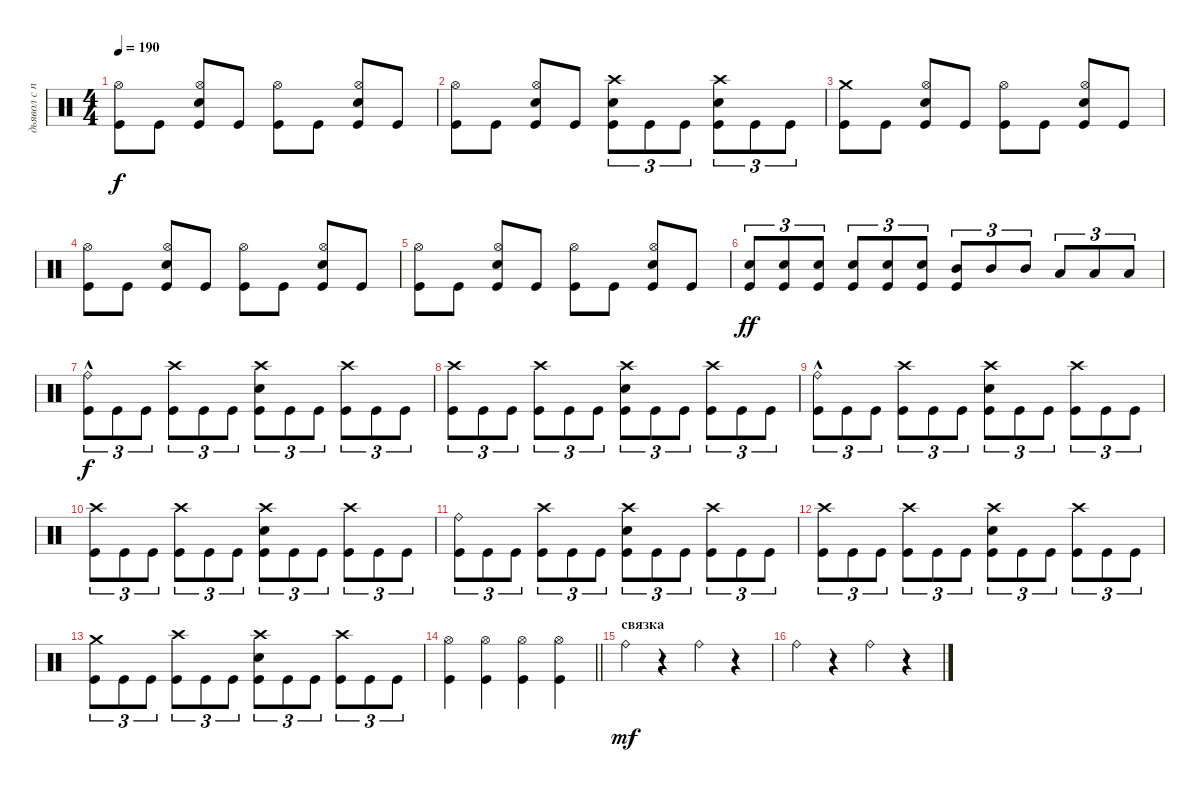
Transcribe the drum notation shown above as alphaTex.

\track ("дьявол с палками" "дьявол с п") {instrument percussion}
\staff {score}
\articulation defaults
\ts (4 4)
\tempo 190
\clef neutral
\ks c
("Kick (hit)" "Hi-Hat (open)").8{dy f} "Kick (hit)".8 ("Kick (hit)" "Snare (hit) 2" "Hi-Hat (open)").8 "Kick (hit)".8 ("Kick (hit)" "Hi-Hat (open)").8 "Kick (hit)".8 ("Kick (hit)" "Snare (hit) 2" "Hi-Hat (open)").8 "Kick (hit)".8 |
("Kick (hit)" "Hi-Hat (open)").8 "Kick (hit)".8 ("Kick (hit)" "Snare (hit) 2" "Hi-Hat (open)").8 "Kick (hit)".8 ("Kick (hit)" "Snare (hit) 2" "Crash high (hit)").8{tu (3 2)} "Kick (hit)".8{tu (3 2)} "Kick (hit)".8{tu (3 2)} ("Kick (hit)" "Snare (hit) 2" "Crash high (hit)").8{tu (3 2)} "Kick (hit)".8{tu (3 2)} "Kick (hit)".8{tu (3 2)} |
("Kick (hit)" "Crash medium (hit)").8 "Kick (hit)".8 ("Kick (hit)" "Snare (hit) 2" "Hi-Hat (open)").8 "Kick (hit)".8 ("Kick (hit)" "Hi-Hat (open)").8 "Kick (hit)".8 ("Kick (hit)" "Snare (hit) 2" "Hi-Hat (open)").8 "Kick (hit)".8 |
("Kick (hit)" "Hi-Hat (open)").8 "Kick (hit)".8 ("Kick (hit)" "Snare (hit) 2" "Hi-Hat (open)").8 "Kick (hit)".8 ("Kick (hit)" "Hi-Hat (open)").8 "Kick (hit)".8 ("Kick (hit)" "Snare (hit) 2" "Hi-Hat (open)").8 "Kick (hit)".8 |
("Kick (hit)" "Hi-Hat (open)").8 "Kick (hit)".8 ("Kick (hit)" "Snare (hit) 2" "Hi-Hat (open)").8 "Kick (hit)".8 ("Kick (hit)" "Hi-Hat (open)").8 "Kick (hit)".8 ("Kick (hit)" "Snare (hit) 2" "Hi-Hat (open)").8 "Kick (hit)".8 |
("Kick (hit)" "Snare (hit) 2").8{tu (3 2) dy ff} ("Kick (hit)" "Snare (hit) 2").8{tu (3 2)} ("Kick (hit)" "Snare (hit) 2").8{tu (3 2)} ("Kick (hit)" "Snare (hit) 2").8{tu (3 2)} ("Kick (hit)" "Snare (hit) 2").8{tu (3 2)} ("Kick (hit)" "Snare (hit) 2").8{tu (3 2)} ("Kick (hit)" "Mid Tom (hit)").8{tu (3 2)} "Mid Tom (hit)".8{tu (3 2)} "Mid Tom (hit)".8{tu (3 2)} "Low Tom (hit)".8{tu (3 2)} "Low Tom (hit)".8{tu (3 2)} "Low Tom (hit)".8{tu (3 2)} |
("Kick (hit)" "Ride (bell)"{hac}).8{tu (3 2) dy f} "Kick (hit)".8{tu (3 2)} "Kick (hit)".8{tu (3 2)} ("Kick (hit)" "Crash high (hit)").8{tu (3 2)} "Kick (hit)".8{tu (3 2)} "Kick (hit)".8{tu (3 2)} ("Kick (hit)" "Snare (hit) 2" "Crash high (hit)").8{tu (3 2)} "Kick (hit)".8{tu (3 2)} "Kick (hit)".8{tu (3 2)} ("Kick (hit)" "Crash high (hit)").8{tu (3 2)} "Kick (hit)".8{tu (3 2)} "Kick (hit)".8{tu (3 2)} |
("Kick (hit)" "Crash high (hit)").8{tu (3 2)} "Kick (hit)".8{tu (3 2)} "Kick (hit)".8{tu (3 2)} ("Kick (hit)" "Crash high (hit)").8{tu (3 2)} "Kick (hit)".8{tu (3 2)} "Kick (hit)".8{tu (3 2)} ("Kick (hit)" "Snare (hit) 2" "Crash high (hit)").8{tu (3 2)} "Kick (hit)".8{tu (3 2)} "Kick (hit)".8{tu (3 2)} ("Kick (hit)" "Crash high (hit)").8{tu (3 2)} "Kick (hit)".8{tu (3 2)} "Kick (hit)".8{tu (3 2)} |
("Kick (hit)" "Ride (bell)"{hac}).8{tu (3 2)} "Kick (hit)".8{tu (3 2)} "Kick (hit)".8{tu (3 2)} ("Kick (hit)" "Crash high (hit)").8{tu (3 2)} "Kick (hit)".8{tu (3 2)} "Kick (hit)".8{tu (3 2)} ("Kick (hit)" "Snare (hit) 2" "Crash high (hit)").8{tu (3 2)} "Kick (hit)".8{tu (3 2)} "Kick (hit)".8{tu (3 2)} ("Kick (hit)" "Crash high (hit)").8{tu (3 2)} "Kick (hit)".8{tu (3 2)} "Kick (hit)".8{tu (3 2)} |
("Kick (hit)" "Crash high (hit)").8{tu (3 2)} "Kick (hit)".8{tu (3 2)} "Kick (hit)".8{tu (3 2)} ("Kick (hit)" "Crash high (hit)").8{tu (3 2)} "Kick (hit)".8{tu (3 2)} "Kick (hit)".8{tu (3 2)} ("Kick (hit)" "Snare (hit) 2" "Crash high (hit)").8{tu (3 2)} "Kick (hit)".8{tu (3 2)} "Kick (hit)".8{tu (3 2)} ("Kick (hit)" "Crash high (hit)").8{tu (3 2)} "Kick (hit)".8{tu (3 2)} "Kick (hit)".8{tu (3 2)} |
("Kick (hit)" "Ride (bell)").8{tu (3 2)} "Kick (hit)".8{tu (3 2)} "Kick (hit)".8{tu (3 2)} ("Kick (hit)" "Crash high (hit)").8{tu (3 2)} "Kick (hit)".8{tu (3 2)} "Kick (hit)".8{tu (3 2)} ("Kick (hit)" "Snare (hit) 2" "Crash high (hit)").8{tu (3 2)} "Kick (hit)".8{tu (3 2)} "Kick (hit)".8{tu (3 2)} ("Kick (hit)" "Crash high (hit)").8{tu (3 2)} "Kick (hit)".8{tu (3 2)} "Kick (hit)".8{tu (3 2)} |
("Kick (hit)" "Crash high (hit)").8{tu (3 2)} "Kick (hit)".8{tu (3 2)} "Kick (hit)".8{tu (3 2)} ("Kick (hit)" "Crash high (hit)").8{tu (3 2)} "Kick (hit)".8{tu (3 2)} "Kick (hit)".8{tu (3 2)} ("Kick (hit)" "Snare (hit) 2" "Crash high (hit)").8{tu (3 2)} "Kick (hit)".8{tu (3 2)} "Kick (hit)".8{tu (3 2)} ("Kick (hit)" "Crash high (hit)").8{tu (3 2)} "Kick (hit)".8{tu (3 2)} "Kick (hit)".8{tu (3 2)} |
("Kick (hit)" "Crash medium (hit)").8{tu (3 2)} "Kick (hit)".8{tu (3 2)} "Kick (hit)".8{tu (3 2)} ("Kick (hit)" "Crash high (hit)").8{tu (3 2)} "Kick (hit)".8{tu (3 2)} "Kick (hit)".8{tu (3 2)} ("Kick (hit)" "Snare (hit) 2" "Crash high (hit)").8{tu (3 2)} "Kick (hit)".8{tu (3 2)} "Kick (hit)".8{tu (3 2)} ("Kick (hit)" "Crash high (hit)").8{tu (3 2)} "Kick (hit)".8{tu (3 2)} "Kick (hit)".8{tu (3 2)} |
\barLineRight lightlight
("Kick (hit)" "Hi-Hat (open)").4 ("Kick (hit)" "Hi-Hat (open)").4 ("Kick (hit)" "Hi-Hat (open)").4 ("Kick (hit)" "Hi-Hat (open)").4 |
\section ("" "связка")
"Ride (bell)".4{dy mf} r.4 "Ride (bell)".4 r.4 |
"Ride (bell)".4 r.4 "Ride (bell)".4 r.4
